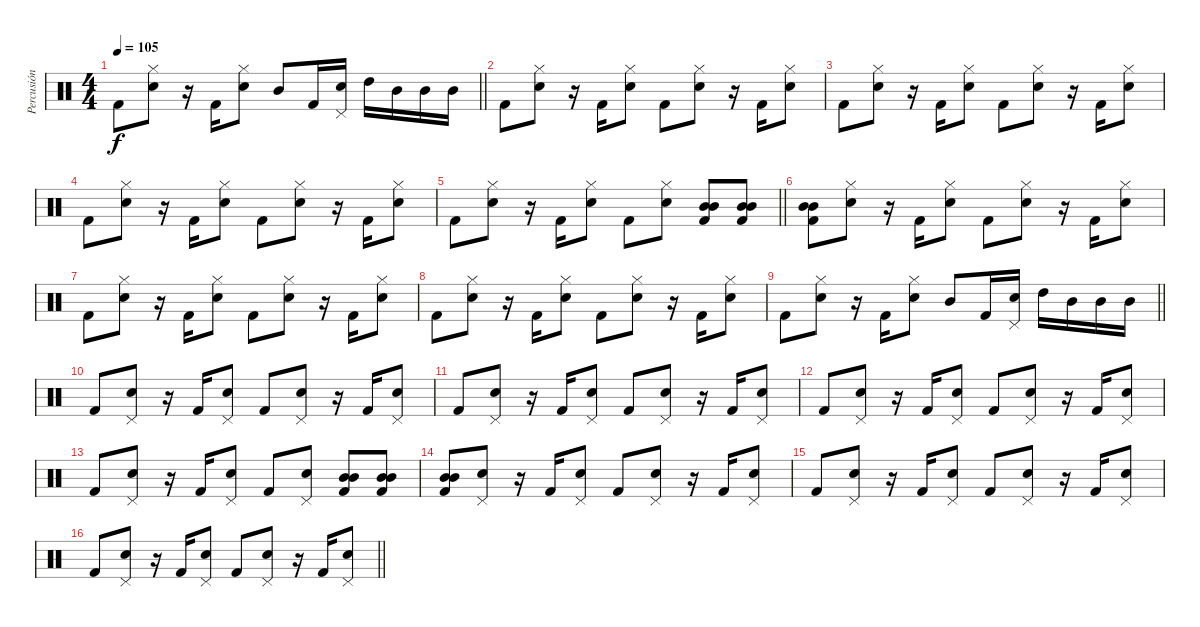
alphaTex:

\track ("Percusión" "Percusión") {instrument percussion}
\staff {score}
\articulation defaults
\ts (4 4)
\tempo 105
\clef neutral
\barLineRight lightlight
\ks c "Kick (hit) 2".8{dy f}
("Snare (hit) 2" "Hi-Hat (closed)").8 r.16 "Kick (hit) 2".16 ("Snare (hit) 2" "Hi-Hat (closed)").8 "Mid Tom (hit)".8 "Kick (hit) 2".16 ("Snare (hit) 2" "Pedal Hi-Hat (hit)").16 "High Tom (hit)".16 "Mid Tom (hit)".16 "Mid Tom (hit)".16 "Mid Tom (hit)".16 |
"Kick (hit) 2".8 ("Snare (hit) 2" "Hi-Hat (closed)").8 r.16 "Kick (hit) 2".16 ("Snare (hit) 2" "Hi-Hat (closed)").8 "Kick (hit) 2".8 ("Snare (hit) 2" "Hi-Hat (closed)").8 r.16 "Kick (hit) 2".16 ("Snare (hit) 2" "Hi-Hat (closed)").8 |
"Kick (hit) 2".8 ("Snare (hit) 2" "Hi-Hat (closed)").8 r.16 "Kick (hit) 2".16 ("Snare (hit) 2" "Hi-Hat (closed)").8 "Kick (hit) 2".8 ("Snare (hit) 2" "Hi-Hat (closed)").8 r.16 "Kick (hit) 2".16 ("Snare (hit) 2" "Hi-Hat (closed)").8 |
"Kick (hit) 2".8 ("Snare (hit) 2" "Hi-Hat (closed)").8 r.16 "Kick (hit) 2".16 ("Snare (hit) 2" "Hi-Hat (closed)").8 "Kick (hit) 2".8 ("Snare (hit) 2" "Hi-Hat (closed)").8 r.16 "Kick (hit) 2".16 ("Snare (hit) 2" "Hi-Hat (closed)").8 |
\barLineRight lightlight "Kick (hit) 2".8
("Snare (hit) 2" "Hi-Hat (closed)").8 r.16 "Kick (hit) 2".16 ("Snare (hit) 2" "Hi-Hat (closed)").8 "Kick (hit) 2".8 ("Snare (hit) 2" "Hi-Hat (closed)").8 ("Kick (hit) 2" "Mid Tom (hit)" "Mid Tom (hit)").8 ("Kick (hit) 2" "Mid Tom (hit)" "Mid Tom (hit)").8 |
("Kick (hit) 2" "Mid Tom (hit)" "Mid Tom (hit)").8 ("Snare (hit) 2" "Hi-Hat (closed)").8 r.16 "Kick (hit) 2".16 ("Snare (hit) 2" "Hi-Hat (closed)").8 "Kick (hit) 2".8 ("Snare (hit) 2" "Hi-Hat (closed)").8 r.16 "Kick (hit) 2".16 ("Snare (hit) 2" "Hi-Hat (closed)").8 |
"Kick (hit) 2".8 ("Snare (hit) 2" "Hi-Hat (closed)").8 r.16 "Kick (hit) 2".16 ("Snare (hit) 2" "Hi-Hat (closed)").8 "Kick (hit) 2".8 ("Snare (hit) 2" "Hi-Hat (closed)").8 r.16 "Kick (hit) 2".16 ("Snare (hit) 2" "Hi-Hat (closed)").8 |
"Kick (hit) 2".8 ("Snare (hit) 2" "Hi-Hat (closed)").8 r.16 "Kick (hit) 2".16 ("Snare (hit) 2" "Hi-Hat (closed)").8 "Kick (hit) 2".8 ("Snare (hit) 2" "Hi-Hat (closed)").8 r.16 "Kick (hit) 2".16 ("Snare (hit) 2" "Hi-Hat (closed)").8 |
\barLineRight lightlight "Kick (hit) 2".8
("Snare (hit) 2" "Hi-Hat (closed)").8 r.16 "Kick (hit) 2".16 ("Snare (hit) 2" "Hi-Hat (closed)").8 "Mid Tom (hit)".8 "Kick (hit) 2".16 ("Snare (hit) 2" "Pedal Hi-Hat (hit)").16 "High Tom (hit)".16 "Mid Tom (hit)".16 "Mid Tom (hit)".16 "Mid Tom (hit)".16 |
"Kick (hit) 2".8 ("Snare (hit) 2" "Pedal Hi-Hat (hit)").8 r.16 "Kick (hit) 2".16 ("Snare (hit) 2" "Pedal Hi-Hat (hit)").8 "Kick (hit) 2".8 ("Snare (hit) 2" "Pedal Hi-Hat (hit)").8 r.16 "Kick (hit) 2".16 ("Snare (hit) 2" "Pedal Hi-Hat (hit)").8 |
"Kick (hit) 2".8 ("Snare (hit) 2" "Pedal Hi-Hat (hit)").8 r.16 "Kick (hit) 2".16 ("Snare (hit) 2" "Pedal Hi-Hat (hit)").8 "Kick (hit) 2".8 ("Snare (hit) 2" "Pedal Hi-Hat (hit)").8 r.16 "Kick (hit) 2".16 ("Snare (hit) 2" "Pedal Hi-Hat (hit)").8 |
"Kick (hit) 2".8 ("Snare (hit) 2" "Pedal Hi-Hat (hit)").8 r.16 "Kick (hit) 2".16 ("Snare (hit) 2" "Pedal Hi-Hat (hit)").8 "Kick (hit) 2".8 ("Snare (hit) 2" "Pedal Hi-Hat (hit)").8 r.16 "Kick (hit) 2".16 ("Snare (hit) 2" "Pedal Hi-Hat (hit)").8 |
"Kick (hit) 2".8 ("Snare (hit) 2" "Pedal Hi-Hat (hit)").8 r.16 "Kick (hit) 2".16 ("Snare (hit) 2" "Pedal Hi-Hat (hit)").8 "Kick (hit) 2".8 ("Snare (hit) 2" "Pedal Hi-Hat (hit)").8 ("Kick (hit) 2" "Mid Tom (hit)" "Mid Tom (hit)").8 ("Kick (hit) 2" "Mid Tom (hit)" "Mid Tom (hit)").8 |
("Kick (hit) 2" "Mid Tom (hit)" "Mid Tom (hit)").8 ("Snare (hit) 2" "Pedal Hi-Hat (hit)").8 r.16 "Kick (hit) 2".16 ("Snare (hit) 2" "Pedal Hi-Hat (hit)").8 "Kick (hit) 2".8 ("Snare (hit) 2" "Pedal Hi-Hat (hit)").8 r.16 "Kick (hit) 2".16 ("Snare (hit) 2" "Pedal Hi-Hat (hit)").8 |
"Kick (hit) 2".8 ("Snare (hit) 2" "Pedal Hi-Hat (hit)").8 r.16 "Kick (hit) 2".16 ("Snare (hit) 2" "Pedal Hi-Hat (hit)").8 "Kick (hit) 2".8 ("Snare (hit) 2" "Pedal Hi-Hat (hit)").8 r.16 "Kick (hit) 2".16 ("Snare (hit) 2" "Pedal Hi-Hat (hit)").8 |
\barLineRight lightlight "Kick (hit) 2".8
("Snare (hit) 2" "Pedal Hi-Hat (hit)").8 r.16 "Kick (hit) 2".16 ("Snare (hit) 2" "Pedal Hi-Hat (hit)").8 "Kick (hit) 2".8 ("Snare (hit) 2" "Pedal Hi-Hat (hit)").8 r.16 "Kick (hit) 2".16 ("Snare (hit) 2" "Pedal Hi-Hat (hit)").8
